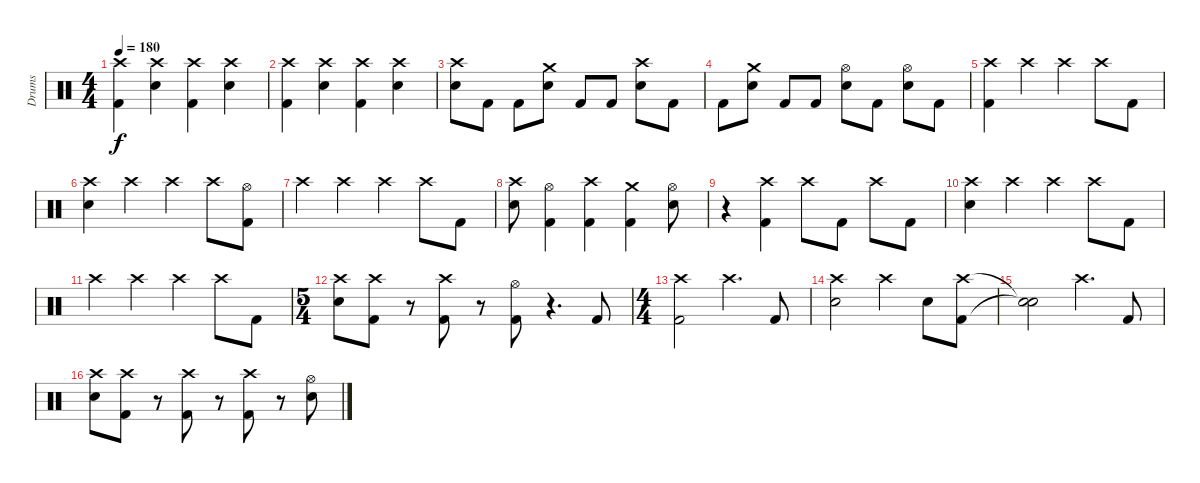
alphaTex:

\track ("Drums" "Drums") {instrument percussion}
\staff {score}
\articulation defaults
\ts (4 4)
\tempo 180
\clef neutral
\ks c
("Crash high (hit)" "Kick (hit) 2").4{dy f} ("Crash high (hit)" "Electric Snare (hit)").4 ("Crash high (hit)" "Kick (hit) 2").4 ("Crash high (hit)" "Electric Snare (hit)").4 |
("Crash high (hit)" "Kick (hit) 2").4 ("Crash high (hit)" "Electric Snare (hit)").4 ("Crash high (hit)" "Kick (hit) 2").4 ("Crash high (hit)" "Electric Snare (hit)").4 |
("Crash high (hit)" "Electric Snare (hit)").8 "Kick (hit) 2".8 "Kick (hit) 2".8 ("Crash medium (hit)" "Electric Snare (hit)").8 "Kick (hit) 2".8 "Kick (hit) 2".8 ("Crash high (hit)" "Electric Snare (hit)").8 "Kick (hit) 2".8 |
"Kick (hit) 2".8 ("Crash medium (hit)" "Electric Snare (hit)").8 "Kick (hit) 2".8 "Kick (hit) 2".8 ("Hi-Hat (open)" "Electric Snare (hit)").8 "Kick (hit) 2".8 ("Hi-Hat (open)" "Electric Snare (hit)").8 "Kick (hit) 2".8 |
("Crash high (hit)" "Kick (hit) 2").4 "Crash high (hit)".4 "Crash high (hit)".4 "Crash high (hit)".8 "Kick (hit) 2".8 |
("Crash high (hit)" "Electric Snare (hit)").4 "Crash high (hit)".4 "Crash high (hit)".4 "Crash high (hit)".8 ("Hi-Hat (open)" "Kick (hit) 2").8 |
"Crash high (hit)".4 "Crash high (hit)".4 "Crash high (hit)".4 "Crash high (hit)".8 "Kick (hit) 2".8 |
("Crash high (hit)" "Electric Snare (hit)").8 ("Hi-Hat (open)" "Kick (hit) 2").4 ("Crash high (hit)" "Kick (hit) 2").4 ("Crash medium (hit)" "Kick (hit) 2").4 ("Hi-Hat (open)" "Electric Snare (hit)").8 |
r.4 ("Crash high (hit)" "Kick (hit) 2").4 "Crash high (hit)".8 "Kick (hit) 2".8 "Crash high (hit)".8 "Kick (hit) 2".8 |
("Crash high (hit)" "Electric Snare (hit)").4 "Crash high (hit)".4 "Crash high (hit)".4 "Crash high (hit)".8 "Kick (hit) 2".8 |
"Crash high (hit)".4 "Crash high (hit)".4 "Crash high (hit)".4 "Crash high (hit)".8 "Kick (hit) 2".8 |
\ts (5 4)
("Crash high (hit)" "Electric Snare (hit)").8 ("Crash high (hit)" "Kick (hit) 2").8 r.8{volume 0} ("Crash high (hit)" "Kick (hit) 2").8{volume 16} r.8{volume 0} ("Hi-Hat (open)" "Kick (hit) 2").8{volume 16} r.4{d volume 0} "Kick (hit) 2".8{volume 16} |
\ts (4 4)
("Crash high (hit)" "Kick (hit) 2").2 "Crash high (hit)".4{d} "Kick (hit) 2".8 |
("Crash high (hit)" "Electric Snare (hit)").2 "Crash high (hit)".4 "Electric Snare (hit)".8 ("Crash high (hit)" "Kick (hit) 2").8 |
("Snare (hit)"{t} "Snare (hit)"{t}).2 "Crash high (hit)".4{d} "Kick (hit) 2".8 |
("Crash high (hit)" "Electric Snare (hit)").8 ("Crash high (hit)" "Kick (hit) 2").8 r.8{volume 0} ("Crash high (hit)" "Kick (hit) 2").8{volume 16} r.8{volume 0} ("Crash high (hit)" "Kick (hit) 2").8{volume 16} r.8{volume 0} ("Hi-Hat (open)" "Electric Snare (hit)").8{volume 16}
